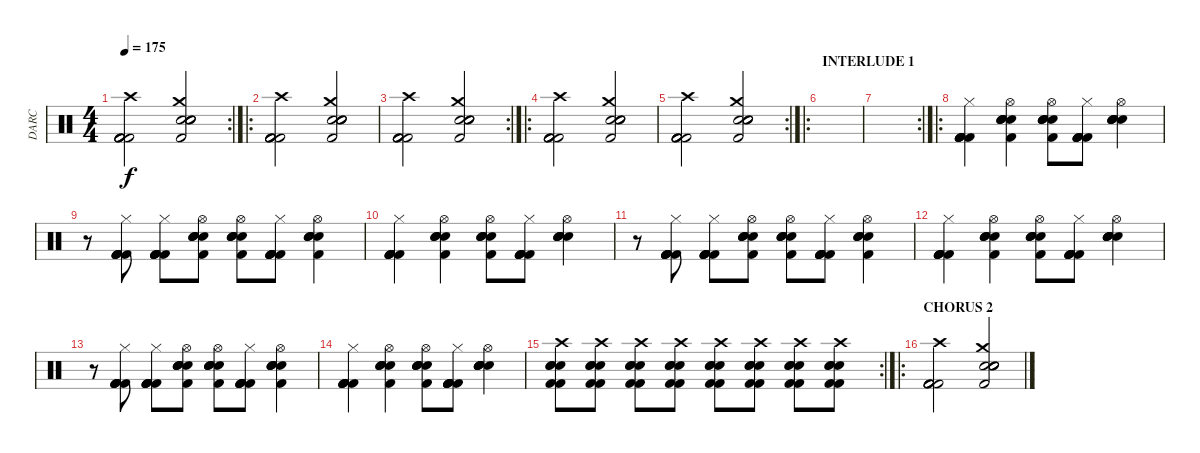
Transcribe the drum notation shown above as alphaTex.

\track ("DARC" "DARC") {instrument percussion}
\staff {score}
\articulation defaults
\rc 2
\ts (4 4)
\tempo 175
\clef neutral
\ks c
("Crash high (hit)" "Kick (hit) 2" "Kick (hit) 2" "Kick (hit) 2" "Kick (hit) 2" "Kick (hit) 2").2{dy f} ("Crash medium (hit)" "Kick (hit) 2" "Electric Snare (hit)" "Electric Snare (hit)" "Electric Snare (hit)" "Electric Snare (hit)").2 |
\ro
("Crash high (hit)" "Kick (hit) 2" "Kick (hit) 2" "Kick (hit) 2" "Kick (hit) 2" "Kick (hit) 2").2 ("Crash medium (hit)" "Kick (hit) 2" "Electric Snare (hit)" "Electric Snare (hit)" "Electric Snare (hit)" "Electric Snare (hit)").2 |
\rc 2
("Crash high (hit)" "Kick (hit) 2" "Kick (hit) 2" "Kick (hit) 2" "Kick (hit) 2" "Kick (hit) 2").2 ("Crash medium (hit)" "Kick (hit) 2" "Electric Snare (hit)" "Electric Snare (hit)" "Electric Snare (hit)" "Electric Snare (hit)").2 |
\ro
("Crash high (hit)" "Kick (hit) 2" "Kick (hit) 2" "Kick (hit) 2" "Kick (hit) 2" "Kick (hit) 2").2 ("Crash medium (hit)" "Kick (hit) 2" "Electric Snare (hit)" "Electric Snare (hit)" "Electric Snare (hit)" "Electric Snare (hit)").2 |
\rc 2
("Crash high (hit)" "Kick (hit) 2" "Kick (hit) 2" "Kick (hit) 2" "Kick (hit) 2" "Kick (hit) 2").2 ("Crash medium (hit)" "Kick (hit) 2" "Electric Snare (hit)" "Electric Snare (hit)" "Electric Snare (hit)" "Electric Snare (hit)").2 |
\ro
\section ("" "INTERLUDE 1")
|
\rc 2
|
\ro
("Kick (hit) 2" "Kick (hit) 2" "Kick (hit) 2" "Kick (hit) 2" "Hi-Hat (closed)" "Kick (hit) 2").4 ("Electric Snare (hit)" "Electric Snare (hit)" "Electric Snare (hit)" "Kick (hit) 2" "Hi-Hat (open)" "Electric Snare (hit)").4 ("Electric Snare (hit)" "Kick (hit) 2" "Electric Snare (hit)" "Electric Snare (hit)" "Hi-Hat (open)" "Electric Snare (hit)").8 ("Kick (hit) 2" "Kick (hit) 2" "Kick (hit) 2" "Kick (hit) 2" "Hi-Hat (closed)" "Kick (hit) 2").8 ("Electric Snare (hit)" "Electric Snare (hit)" "Electric Snare (hit)" "Electric Snare (hit)" "Hi-Hat (open)" "Electric Snare (hit)").4 |
r.8 ("Kick (hit) 2" "Kick (hit) 2" "Kick (hit) 2" "Kick (hit) 2" "Hi-Hat (closed)" "Kick (hit) 2").8 ("Kick (hit) 2" "Kick (hit) 2" "Kick (hit) 2" "Kick (hit) 2" "Hi-Hat (closed)" "Kick (hit) 2").8 ("Kick (hit) 2" "Electric Snare (hit)" "Electric Snare (hit)" "Electric Snare (hit)" "Hi-Hat (open)" "Electric Snare (hit)").8 ("Kick (hit) 2" "Electric Snare (hit)" "Electric Snare (hit)" "Electric Snare (hit)" "Hi-Hat (open)" "Electric Snare (hit)").8 ("Kick (hit) 2" "Kick (hit) 2" "Kick (hit) 2" "Kick (hit) 2" "Hi-Hat (closed)" "Kick (hit) 2").8 ("Kick (hit) 2" "Electric Snare (hit)" "Electric Snare (hit)" "Electric Snare (hit)" "Hi-Hat (open)" "Electric Snare (hit)").4 |
("Kick (hit) 2" "Kick (hit) 2" "Kick (hit) 2" "Kick (hit) 2" "Hi-Hat (closed)" "Kick (hit) 2").4 ("Electric Snare (hit)" "Electric Snare (hit)" "Electric Snare (hit)" "Kick (hit) 2" "Hi-Hat (open)" "Electric Snare (hit)").4 ("Electric Snare (hit)" "Kick (hit) 2" "Electric Snare (hit)" "Electric Snare (hit)" "Hi-Hat (open)" "Electric Snare (hit)").8 ("Kick (hit) 2" "Kick (hit) 2" "Kick (hit) 2" "Kick (hit) 2" "Hi-Hat (closed)" "Kick (hit) 2").8 ("Electric Snare (hit)" "Electric Snare (hit)" "Electric Snare (hit)" "Electric Snare (hit)" "Hi-Hat (open)" "Electric Snare (hit)").4 |
r.8 ("Kick (hit) 2" "Kick (hit) 2" "Kick (hit) 2" "Kick (hit) 2" "Hi-Hat (closed)" "Kick (hit) 2").8 ("Kick (hit) 2" "Kick (hit) 2" "Kick (hit) 2" "Kick (hit) 2" "Hi-Hat (closed)" "Kick (hit) 2").8 ("Kick (hit) 2" "Electric Snare (hit)" "Electric Snare (hit)" "Electric Snare (hit)" "Hi-Hat (open)" "Electric Snare (hit)").8 ("Kick (hit) 2" "Electric Snare (hit)" "Electric Snare (hit)" "Electric Snare (hit)" "Hi-Hat (open)" "Electric Snare (hit)").8 ("Kick (hit) 2" "Kick (hit) 2" "Kick (hit) 2" "Kick (hit) 2" "Hi-Hat (closed)" "Kick (hit) 2").8 ("Kick (hit) 2" "Electric Snare (hit)" "Electric Snare (hit)" "Electric Snare (hit)" "Hi-Hat (open)" "Electric Snare (hit)").4 |
("Kick (hit) 2" "Kick (hit) 2" "Kick (hit) 2" "Kick (hit) 2" "Hi-Hat (closed)" "Kick (hit) 2").4 ("Electric Snare (hit)" "Electric Snare (hit)" "Electric Snare (hit)" "Kick (hit) 2" "Hi-Hat (open)" "Electric Snare (hit)").4 ("Electric Snare (hit)" "Kick (hit) 2" "Electric Snare (hit)" "Electric Snare (hit)" "Hi-Hat (open)" "Electric Snare (hit)").8 ("Kick (hit) 2" "Kick (hit) 2" "Kick (hit) 2" "Kick (hit) 2" "Hi-Hat (closed)" "Kick (hit) 2").8 ("Electric Snare (hit)" "Electric Snare (hit)" "Electric Snare (hit)" "Electric Snare (hit)" "Hi-Hat (open)" "Electric Snare (hit)").4 |
r.8 ("Kick (hit) 2" "Kick (hit) 2" "Kick (hit) 2" "Kick (hit) 2" "Hi-Hat (closed)" "Kick (hit) 2").8 ("Kick (hit) 2" "Kick (hit) 2" "Kick (hit) 2" "Kick (hit) 2" "Hi-Hat (closed)" "Kick (hit) 2").8 ("Kick (hit) 2" "Electric Snare (hit)" "Electric Snare (hit)" "Electric Snare (hit)" "Hi-Hat (open)" "Electric Snare (hit)").8 ("Kick (hit) 2" "Electric Snare (hit)" "Electric Snare (hit)" "Electric Snare (hit)" "Hi-Hat (open)" "Electric Snare (hit)").8 ("Kick (hit) 2" "Kick (hit) 2" "Kick (hit) 2" "Kick (hit) 2" "Hi-Hat (closed)" "Kick (hit) 2").8 ("Kick (hit) 2" "Electric Snare (hit)" "Electric Snare (hit)" "Electric Snare (hit)" "Hi-Hat (open)" "Electric Snare (hit)").4 |
("Kick (hit) 2" "Kick (hit) 2" "Kick (hit) 2" "Kick (hit) 2" "Hi-Hat (closed)" "Kick (hit) 2").4 ("Electric Snare (hit)" "Electric Snare (hit)" "Electric Snare (hit)" "Kick (hit) 2" "Hi-Hat (open)" "Electric Snare (hit)").4 ("Electric Snare (hit)" "Kick (hit) 2" "Electric Snare (hit)" "Electric Snare (hit)" "Hi-Hat (open)" "Electric Snare (hit)").8 ("Kick (hit) 2" "Kick (hit) 2" "Kick (hit) 2" "Kick (hit) 2" "Hi-Hat (closed)" "Kick (hit) 2").8 ("Electric Snare (hit)" "Electric Snare (hit)" "Electric Snare (hit)" "Electric Snare (hit)" "Hi-Hat (open)" "Electric Snare (hit)").4 |
\rc 2
("Kick (hit) 2" "Electric Snare (hit)" "Electric Snare (hit)" "Kick (hit) 2" "Crash high (hit)" "Electric Snare (hit)").8 ("Kick (hit) 2" "Electric Snare (hit)" "Electric Snare (hit)" "Kick (hit) 2" "Crash high (hit)" "Electric Snare (hit)").8 ("Kick (hit) 2" "Electric Snare (hit)" "Electric Snare (hit)" "Kick (hit) 2" "Crash high (hit)" "Electric Snare (hit)").8 ("Kick (hit) 2" "Electric Snare (hit)" "Electric Snare (hit)" "Kick (hit) 2" "Crash high (hit)" "Electric Snare (hit)").8 ("Kick (hit) 2" "Electric Snare (hit)" "Electric Snare (hit)" "Kick (hit) 2" "Crash high (hit)" "Electric Snare (hit)").8 ("Kick (hit) 2" "Electric Snare (hit)" "Electric Snare (hit)" "Kick (hit) 2" "Crash high (hit)" "Electric Snare (hit)").8 ("Kick (hit) 2" "Electric Snare (hit)" "Electric Snare (hit)" "Kick (hit) 2" "Crash high (hit)" "Electric Snare (hit)").8 ("Kick (hit) 2" "Electric Snare (hit)" "Electric Snare (hit)" "Kick (hit) 2" "Crash high (hit)" "Electric Snare (hit)").8 |
\ro
\section ("" "CHORUS 2")
("Crash high (hit)" "Kick (hit) 2" "Kick (hit) 2" "Kick (hit) 2" "Kick (hit) 2" "Kick (hit) 2").2 ("Crash medium (hit)" "Kick (hit) 2" "Electric Snare (hit)" "Electric Snare (hit)" "Electric Snare (hit)" "Electric Snare (hit)").2
